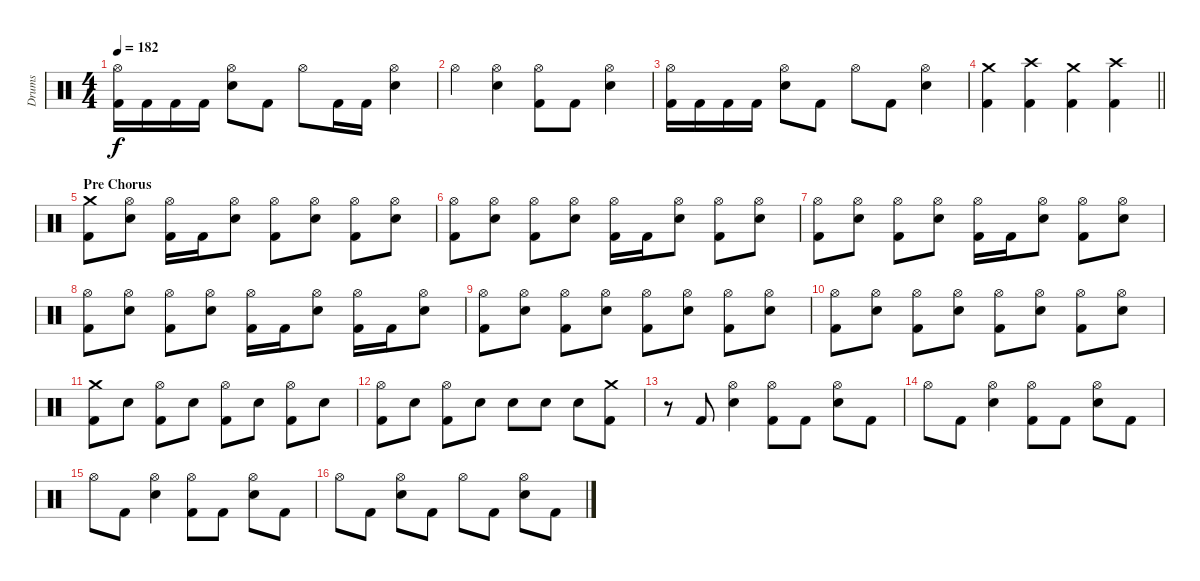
\track ("Drums" "Drums") {instrument percussion}
\staff {score}
\articulation defaults
\ts (4 4)
\tempo 182
\clef neutral
\ks c
("Hi-Hat (open)" "Kick (hit) 2").16{dy f} "Kick (hit) 2".16 "Kick (hit) 2".16 "Kick (hit) 2".16 ("Hi-Hat (open)" "Snare (hit) 2").8 "Kick (hit) 2".8 "Hi-Hat (open)".8 "Kick (hit) 2".16 "Kick (hit) 2".16 ("Hi-Hat (open)" "Snare (hit) 2").4 |
"Hi-Hat (open)".4 ("Hi-Hat (open)" "Snare (hit) 2").4 ("Hi-Hat (open)" "Kick (hit) 2").8 "Kick (hit) 2".8 ("Hi-Hat (open)" "Snare (hit) 2").4 |
("Hi-Hat (open)" "Kick (hit) 2").16 "Kick (hit) 2".16 "Kick (hit) 2".16 "Kick (hit) 2".16 ("Hi-Hat (open)" "Snare (hit) 2").8 "Kick (hit) 2".8 "Hi-Hat (open)".8 "Kick (hit) 2".8 ("Hi-Hat (open)" "Snare (hit) 2").4 |
\barLineRight lightlight
("Crash medium (hit)" "Kick (hit) 2").4 ("Crash high (hit)" "Kick (hit) 2").4 ("Crash medium (hit)" "Kick (hit) 2").4 ("Crash high (hit)" "Kick (hit) 2").4 |
\section ("" "Pre Chorus")
("Crash medium (hit)" "Kick (hit) 2").8 ("Hi-Hat (open)" "Snare (hit) 2").8 ("Hi-Hat (open)" "Kick (hit) 2").16 "Kick (hit) 2".16 ("Hi-Hat (open)" "Snare (hit) 2").8 ("Hi-Hat (open)" "Kick (hit) 2").8 ("Hi-Hat (open)" "Snare (hit) 2").8 ("Hi-Hat (open)" "Kick (hit) 2").8 ("Hi-Hat (open)" "Snare (hit) 2").8 |
("Hi-Hat (open)" "Kick (hit) 2").8 ("Hi-Hat (open)" "Snare (hit) 2").8 ("Hi-Hat (open)" "Kick (hit) 2").8 ("Hi-Hat (open)" "Snare (hit) 2").8 ("Hi-Hat (open)" "Kick (hit) 2").16 "Kick (hit) 2".16 ("Hi-Hat (open)" "Snare (hit) 2").8 ("Hi-Hat (open)" "Kick (hit) 2").8 ("Hi-Hat (open)" "Snare (hit) 2").8 |
("Hi-Hat (open)" "Kick (hit) 2").8 ("Hi-Hat (open)" "Snare (hit) 2").8 ("Hi-Hat (open)" "Kick (hit) 2").8 ("Hi-Hat (open)" "Snare (hit) 2").8 ("Hi-Hat (open)" "Kick (hit) 2").16 "Kick (hit) 2".16 ("Hi-Hat (open)" "Snare (hit) 2").8 ("Hi-Hat (open)" "Kick (hit) 2").8 ("Hi-Hat (open)" "Snare (hit) 2").8 |
("Hi-Hat (open)" "Kick (hit) 2").8 ("Hi-Hat (open)" "Snare (hit) 2").8 ("Hi-Hat (open)" "Kick (hit) 2").8 ("Hi-Hat (open)" "Snare (hit) 2").8 ("Hi-Hat (open)" "Kick (hit) 2").16 "Kick (hit) 2".16 ("Hi-Hat (open)" "Snare (hit) 2").8 ("Hi-Hat (open)" "Kick (hit) 2").16 "Kick (hit) 2".16 ("Hi-Hat (open)" "Snare (hit) 2").8 |
("Hi-Hat (open)" "Kick (hit) 2").8 ("Hi-Hat (open)" "Snare (hit) 2").8 ("Hi-Hat (open)" "Kick (hit) 2").8 ("Hi-Hat (open)" "Snare (hit) 2").8 ("Hi-Hat (open)" "Kick (hit) 2").8 ("Hi-Hat (open)" "Snare (hit) 2").8 ("Hi-Hat (open)" "Kick (hit) 2").8 ("Hi-Hat (open)" "Snare (hit) 2").8 |
("Hi-Hat (open)" "Kick (hit) 2").8 ("Hi-Hat (open)" "Snare (hit) 2").8 ("Hi-Hat (open)" "Kick (hit) 2").8 ("Hi-Hat (open)" "Snare (hit) 2").8 ("Hi-Hat (open)" "Kick (hit) 2").8 ("Hi-Hat (open)" "Snare (hit) 2").8 ("Hi-Hat (open)" "Kick (hit) 2").8 ("Hi-Hat (open)" "Snare (hit) 2").8 |
("Crash medium (hit)" "Kick (hit) 2").8 "Snare (hit) 2".8 ("Hi-Hat (open)" "Kick (hit) 2").8 "Snare (hit) 2".8 ("Hi-Hat (open)" "Kick (hit) 2").8 "Snare (hit) 2".8 ("Hi-Hat (open)" "Kick (hit) 2").8 "Snare (hit) 2".8 |
("Hi-Hat (open)" "Kick (hit) 2").8 "Snare (hit) 2".8 ("Hi-Hat (open)" "Kick (hit) 2").8 "Snare (hit) 2".8 "Snare (hit) 2".8 "Snare (hit) 2".8 "Snare (hit) 2".8 ("Crash medium (hit)" "Kick (hit) 2").8 |
r.8 "Kick (hit) 2".8 ("Hi-Hat (open)" "Snare (hit) 2").4 ("Hi-Hat (open)" "Kick (hit) 2").8 "Kick (hit) 2".8 ("Hi-Hat (open)" "Snare (hit) 2").8 "Kick (hit) 2".8 |
"Hi-Hat (open)".8 "Kick (hit) 2".8 ("Hi-Hat (open)" "Snare (hit) 2").4 ("Hi-Hat (open)" "Kick (hit) 2").8 "Kick (hit) 2".8 ("Hi-Hat (open)" "Snare (hit) 2").8 "Kick (hit) 2".8 |
"Hi-Hat (open)".8 "Kick (hit) 2".8 ("Hi-Hat (open)" "Snare (hit) 2").4 ("Hi-Hat (open)" "Kick (hit) 2").8 "Kick (hit) 2".8 ("Hi-Hat (open)" "Snare (hit) 2").8 "Kick (hit) 2".8 |
"Hi-Hat (open)".8 "Kick (hit) 2".8 ("Hi-Hat (open)" "Snare (hit) 2").8 "Kick (hit) 2".8 "Hi-Hat (open)".8 "Kick (hit) 2".8 ("Hi-Hat (open)" "Snare (hit) 2").8 "Kick (hit) 2".8
